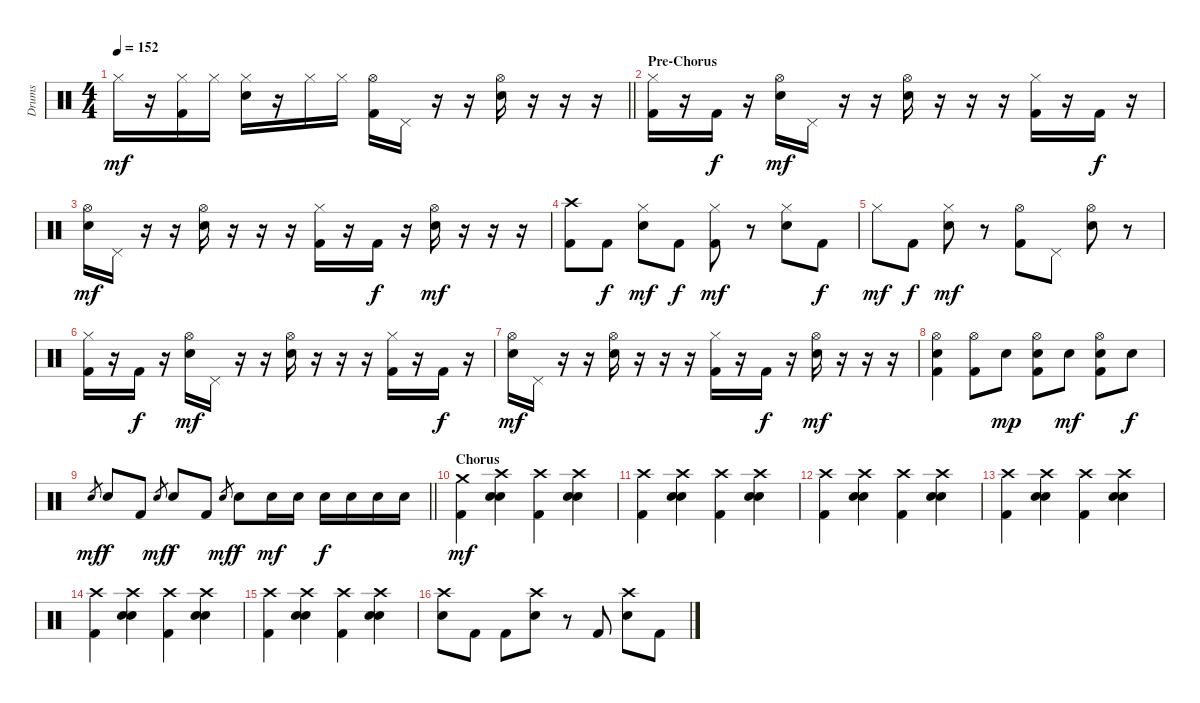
\track ("Drums" "Drums") {instrument percussion}
\staff {score}
\articulation defaults
\ts (4 4)
\tempo 152
\clef neutral
\barLineRight lightlight
\ks c "Hi-Hat (closed)".16{dy mf}
r.16 ("Hi-Hat (closed)" "Kick (hit) 2").16 "Hi-Hat (closed)".16 ("Hi-Hat (closed)" "Snare (hit) 2").16 r.16 "Hi-Hat (closed)".16 "Hi-Hat (closed)".16 ("Hi-Hat (open)" "Kick (hit) 2").16 "Pedal Hi-Hat (hit)".16 r.16 r.16 ("Hi-Hat (open)" "Snare (hit) 2").16 r.16 r.16 r.16 |
\section ("" "Pre-Chorus")
("Hi-Hat (closed)" "Kick (hit) 2").16 r.16 "Kick (hit) 2".16{dy f} r.16 ("Hi-Hat (open)" "Snare (hit) 2").16{dy mf} "Pedal Hi-Hat (hit)".16 r.16 r.16 ("Hi-Hat (open)" "Snare (hit) 2").16 r.16 r.16 r.16 ("Hi-Hat (closed)" "Kick (hit) 2").16 r.16 "Kick (hit) 2".16{dy f} r.16 |
("Hi-Hat (open)" "Snare (hit) 2").16{dy mf} "Pedal Hi-Hat (hit)".16 r.16 r.16 ("Hi-Hat (open)" "Snare (hit) 2").16 r.16 r.16 r.16 ("Hi-Hat (closed)" "Kick (hit) 2").16 r.16 "Kick (hit) 2".16{dy f} r.16 ("Hi-Hat (open)" "Snare (hit) 2").16{dy mf} r.16 r.16 r.16 |
("Crash high (hit)" "Kick (hit) 2").8 "Kick (hit) 2".8{dy f} ("Hi-Hat (closed)" "Snare (hit) 2").8{dy mf} "Kick (hit) 2".8{dy f} ("Hi-Hat (closed)" "Kick (hit) 2").8{dy mf} r.8 ("Hi-Hat (closed)" "Snare (hit) 2").8 "Kick (hit) 2".8{dy f} |
"Hi-Hat (closed)".8{dy mf} "Kick (hit) 2".8{dy f} ("Hi-Hat (closed)" "Snare (hit) 2").8{dy mf} r.8 ("Hi-Hat (open)" "Kick (hit) 2").8 "Pedal Hi-Hat (hit)".8 ("Hi-Hat (open)" "Snare (hit) 2").8 r.8 |
("Hi-Hat (closed)" "Kick (hit) 2").16 r.16 "Kick (hit) 2".16{dy f} r.16 ("Hi-Hat (open)" "Snare (hit) 2").16{dy mf} "Pedal Hi-Hat (hit)".16 r.16 r.16 ("Hi-Hat (open)" "Snare (hit) 2").16 r.16 r.16 r.16 ("Hi-Hat (closed)" "Kick (hit) 2").16 r.16 "Kick (hit) 2".16{dy f} r.16 |
("Hi-Hat (open)" "Snare (hit) 2").16{dy mf} "Pedal Hi-Hat (hit)".16 r.16 r.16 ("Hi-Hat (open)" "Snare (hit) 2").16 r.16 r.16 r.16 ("Hi-Hat (closed)" "Kick (hit) 2").16 r.16 "Kick (hit) 2".16{dy f} r.16 ("Hi-Hat (open)" "Snare (hit) 2").16{dy mf} r.16 r.16 r.16 |
("Hi-Hat (open)" "Snare (hit) 2" "Kick (hit) 2").4 ("Hi-Hat (open)" "Kick (hit) 2").8 "Snare (hit) 2".8{dy mp} ("Hi-Hat (open)" "Snare (hit) 2" "Kick (hit) 2").8 "Snare (hit) 2".8{dy mf} ("Hi-Hat (open)" "Snare (hit) 2" "Kick (hit) 2").8 "Snare (hit) 2".8{dy f} |
\barLineRight lightlight "Snare (hit) 2".8{gr dy mf} "Snare (hit) 2".8{dy f} "Kick (hit) 2".8 "Snare (hit) 2".8{gr dy mf} "Snare (hit) 2".8{dy f} "Kick (hit) 2".8 "Snare (hit) 2".8{gr dy mf} "Snare (hit) 2".8{dy f} "Snare (hit) 2".16{dy mf} "Snare (hit) 2".16 "Snare (hit) 2".16{dy f} "Snare (hit) 2".16 "Snare (hit) 2".16 "Snare (hit) 2".16
|
\section ("" "Chorus")
("Crash medium (hit)" "Kick (hit) 2").4{dy mf} ("Crash high (hit)" "Electric Snare (hit)" "Snare (hit) 2").4 ("Crash high (hit)" "Kick (hit) 2").4 ("Crash high (hit)" "Electric Snare (hit)" "Snare (hit) 2").4 |
("Crash high (hit)" "Kick (hit) 2").4 ("Crash high (hit)" "Electric Snare (hit)" "Snare (hit) 2").4 ("Crash high (hit)" "Kick (hit) 2").4 ("Crash high (hit)" "Electric Snare (hit)" "Snare (hit) 2").4 |
("Crash high (hit)" "Kick (hit) 2").4 ("Crash high (hit)" "Electric Snare (hit)" "Snare (hit) 2").4 ("Crash high (hit)" "Kick (hit) 2").4 ("Crash high (hit)" "Electric Snare (hit)" "Snare (hit) 2").4 |
("Crash high (hit)" "Kick (hit) 2").4 ("Crash high (hit)" "Electric Snare (hit)" "Snare (hit) 2").4 ("Crash high (hit)" "Kick (hit) 2").4 ("Crash high (hit)" "Electric Snare (hit)" "Snare (hit) 2").4 |
("Crash high (hit)" "Kick (hit) 2").4 ("Crash high (hit)" "Electric Snare (hit)" "Snare (hit) 2").4 ("Crash high (hit)" "Kick (hit) 2").4 ("Crash high (hit)" "Electric Snare (hit)" "Snare (hit) 2").4 |
("Crash high (hit)" "Kick (hit) 2").4 ("Crash high (hit)" "Electric Snare (hit)" "Snare (hit) 2").4 ("Crash high (hit)" "Kick (hit) 2").4 ("Crash high (hit)" "Electric Snare (hit)" "Snare (hit) 2").4 |
("Crash high (hit)" "Snare (hit) 2").8 "Kick (hit) 2".8 "Kick (hit) 2".8 ("Crash high (hit)" "Snare (hit) 2").8 r.8 "Kick (hit) 2".8 ("Crash high (hit)" "Snare (hit) 2").8 "Kick (hit) 2".8
